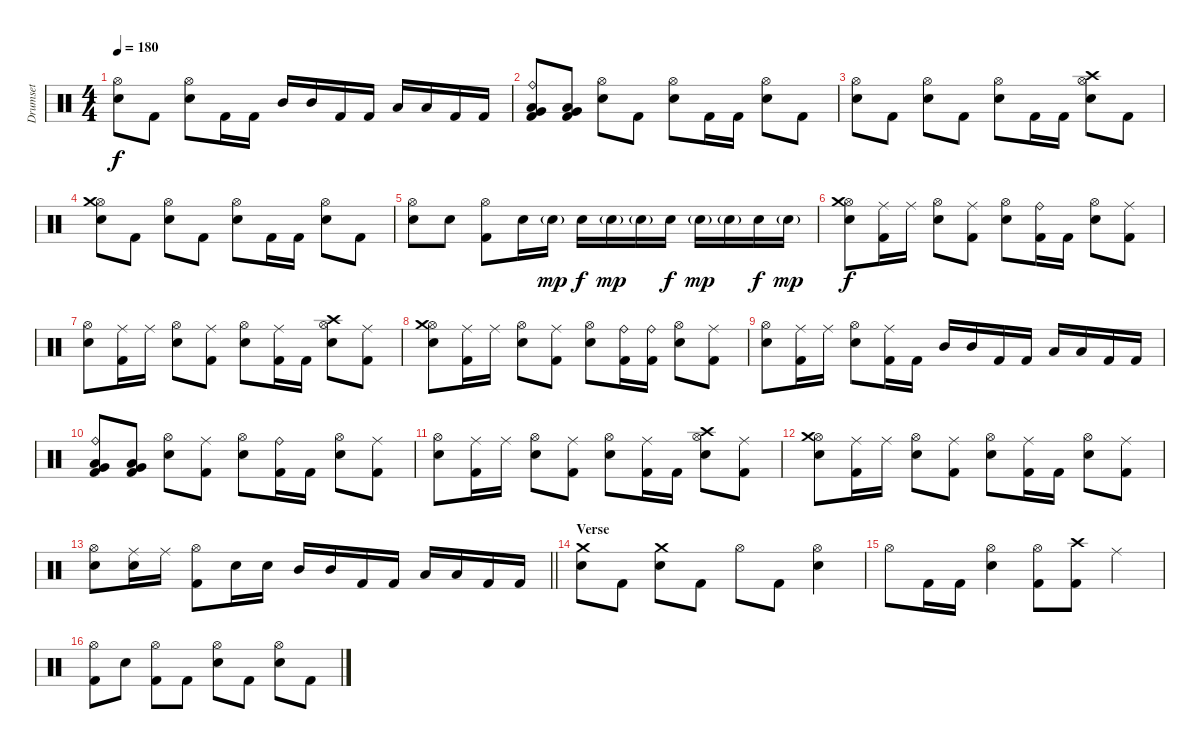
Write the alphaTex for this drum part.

\track ("Drumset" "Drumset") {instrument percussion}
\staff {score}
\articulation defaults
\ts (4 4)
\tempo 180
\clef neutral
\ks c
("Hi-Hat (open)" "Snare (hit) 2").8{dy f} "Kick (hit) 2".8 ("Hi-Hat (open)" "Snare (hit) 2").8 "Kick (hit) 2".16 "Kick (hit) 2".16 "Mid Tom (hit)".16 "Mid Tom (hit)".16 "Kick (hit) 2".16 "Kick (hit) 2".16 "Low Tom (hit)".16 "Low Tom (hit)".16 "Kick (hit) 2".16 "Kick (hit) 2".16 |
("Ride (bell)" "Low Tom (hit)" "Very Low Tom (hit)" "Kick (hit) 2").8 ("Low Tom (hit)" "Very Low Tom (hit)" "Kick (hit) 2").8 ("Hi-Hat (open)" "Snare (hit) 2").8 "Kick (hit) 2".8 ("Hi-Hat (open)" "Snare (hit) 2").8 "Kick (hit) 2".16 "Kick (hit) 2".16 ("Hi-Hat (open)" "Snare (hit) 2").8 "Kick (hit) 2".8 |
("Hi-Hat (open)" "Snare (hit) 2").8 "Kick (hit) 2".8 ("Hi-Hat (open)" "Snare (hit) 2").8 "Kick (hit) 2".8 ("Hi-Hat (open)" "Snare (hit) 2").8 "Kick (hit) 2".16 "Kick (hit) 2".16 ("Hi-Hat (open)" "Crash high (hit)" "Snare (hit) 2").8 "Kick (hit) 2".8 |
("Hi-Hat (open)" "Crash medium (hit)" "Snare (hit) 2").8 "Kick (hit) 2".8 ("Hi-Hat (open)" "Snare (hit) 2").8 "Kick (hit) 2".8 ("Hi-Hat (open)" "Snare (hit) 2").8 "Kick (hit) 2".16 "Kick (hit) 2".16 ("Hi-Hat (open)" "Snare (hit) 2").8 "Kick (hit) 2".8 |
("Hi-Hat (open)" "Snare (hit) 2").8 "Snare (hit) 2".8 ("Hi-Hat (open)" "Kick (hit) 2").8 "Snare (hit) 2".16 "Snare (hit) 2"{g}.16{dy mp} "Snare (hit) 2".16{dy f} "Snare (hit) 2"{g}.16{dy mp} "Snare (hit) 2"{g}.16 "Snare (hit) 2".16{dy f} "Snare (hit) 2"{g}.16{dy mp} "Snare (hit) 2"{g}.16 "Snare (hit) 2".16{dy f} "Snare (hit) 2"{g}.16{dy mp} |
("Hi-Hat (open)" "Crash medium (hit)" "Snare (hit) 2").8{dy f} ("Ride (middle)" "Kick (hit) 2").16 "Ride (middle)".16 ("Hi-Hat (open)" "Snare (hit) 2").8 ("Ride (middle)" "Kick (hit) 2").8 ("Hi-Hat (open)" "Snare (hit) 2").8 ("Ride (bell)" "Kick (hit) 2").16 "Kick (hit) 2".16 ("Hi-Hat (open)" "Snare (hit) 2").8 ("Ride (middle)" "Kick (hit) 2").8 |
("Hi-Hat (open)" "Snare (hit) 2").8 ("Ride (middle)" "Kick (hit) 2").16 "Ride (middle)".16 ("Hi-Hat (open)" "Snare (hit) 2").8 ("Ride (middle)" "Kick (hit) 2").8 ("Hi-Hat (open)" "Snare (hit) 2").8 ("Ride (middle)" "Kick (hit) 2").16 "Kick (hit) 2".16 ("Hi-Hat (open)" "Crash high (hit)" "Snare (hit) 2").8 ("Ride (middle)" "Kick (hit) 2").8 |
("Hi-Hat (open)" "Crash medium (hit)" "Snare (hit) 2").8 ("Ride (middle)" "Kick (hit) 2").16 "Ride (middle)".16 ("Hi-Hat (open)" "Snare (hit) 2").8 ("Ride (middle)" "Kick (hit) 2").8 ("Hi-Hat (open)" "Snare (hit) 2").8 ("Ride (bell)" "Kick (hit) 2").16 ("Ride (bell)" "Kick (hit) 2").16 ("Hi-Hat (open)" "Snare (hit) 2").8 ("Ride (middle)" "Kick (hit) 2").8 |
("Hi-Hat (open)" "Snare (hit) 2").8 ("Ride (middle)" "Kick (hit) 2").16 "Ride (middle)".16 ("Hi-Hat (open)" "Snare (hit) 2").8 ("Ride (middle)" "Kick (hit) 2").16 "Kick (hit) 2".16 "Mid Tom (hit)".16 "Mid Tom (hit)".16 "Kick (hit) 2".16 "Kick (hit) 2".16 "Low Tom (hit)".16 "Low Tom (hit)".16 "Kick (hit) 2".16 "Kick (hit) 2".16 |
("Ride (bell)" "Low Tom (hit)" "Very Low Tom (hit)" "Kick (hit) 2").8 ("Low Tom (hit)" "Very Low Tom (hit)" "Kick (hit) 2").8 ("Hi-Hat (open)" "Snare (hit) 2").8 ("Ride (middle)" "Kick (hit) 2").8 ("Hi-Hat (open)" "Snare (hit) 2").8 ("Ride (bell)" "Kick (hit) 2").16 "Kick (hit) 2".16 ("Hi-Hat (open)" "Snare (hit) 2").8 ("Ride (middle)" "Kick (hit) 2").8 |
("Hi-Hat (open)" "Snare (hit) 2").8 ("Ride (middle)" "Kick (hit) 2").16 "Ride (middle)".16 ("Hi-Hat (open)" "Snare (hit) 2").8 ("Ride (middle)" "Kick (hit) 2").8 ("Hi-Hat (open)" "Snare (hit) 2").8 ("Ride (middle)" "Kick (hit) 2").16 "Kick (hit) 2".16 ("Hi-Hat (open)" "Crash high (hit)" "Snare (hit) 2").8 ("Ride (middle)" "Kick (hit) 2").8 |
("Hi-Hat (open)" "Crash medium (hit)" "Snare (hit) 2").8 ("Ride (middle)" "Kick (hit) 2").16 "Ride (middle)".16 ("Hi-Hat (open)" "Snare (hit) 2").8 ("Ride (middle)" "Kick (hit) 2").8 ("Hi-Hat (open)" "Snare (hit) 2").8 ("Ride (middle)" "Kick (hit) 2").16 "Kick (hit) 2".16 ("Hi-Hat (open)" "Snare (hit) 2").8 ("Ride (middle)" "Kick (hit) 2").8 |
\barLineRight lightlight
("Hi-Hat (open)" "Snare (hit) 2").8 ("Ride (middle)" "Snare (hit) 2").16 "Ride (middle)".16 ("Hi-Hat (open)" "Kick (hit) 2").8 "Snare (hit) 2".16 "Snare (hit) 2".16 "Mid Tom (hit)".16 "Mid Tom (hit)".16 "Kick (hit) 2".16 "Kick (hit) 2".16 "Low Tom (hit)".16 "Low Tom (hit)".16 "Kick (hit) 2".16 "Kick (hit) 2".16 |
\section ("" "Verse")
("Crash medium (hit)" "Snare (hit) 2").8 "Kick (hit) 2".8 ("Crash medium (hit)" "Snare (hit) 2").8 "Kick (hit) 2".8 "Hi-Hat (open)".8 "Kick (hit) 2".8 ("Hi-Hat (open)" "Snare (hit) 2").4 |
"Hi-Hat (open)".8 "Kick (hit) 2".16 "Kick (hit) 2".16 ("Hi-Hat (open)" "Snare (hit) 2").4 ("Hi-Hat (open)" "Kick (hit) 2").8 ("Crash high (hit)" "Kick (hit) 2").8 "Ride (middle)".4 |
("Hi-Hat (open)" "Kick (hit) 2").8 "Snare (hit) 2".8 ("Hi-Hat (open)" "Kick (hit) 2").8 "Kick (hit) 2".8 ("Hi-Hat (open)" "Snare (hit) 2").8 "Kick (hit) 2".8 ("Hi-Hat (open)" "Snare (hit) 2").8 "Kick (hit) 2".8
